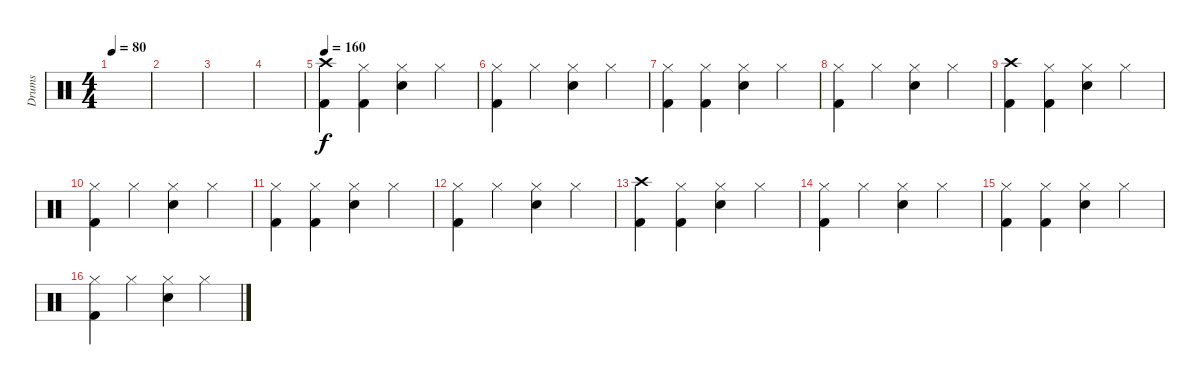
\track ("Drums" "Drums") {instrument percussion}
\staff {score}
\articulation defaults
\ts (4 4)
\tempo 80
\clef neutral
\ks c
|
|
|
|
\tempo 160
("Crash high (hit)" "Kick (hit) 2").4 ("Hi-Hat (closed)" "Kick (hit) 2").4 ("Hi-Hat (closed)" "Snare (hit) 2").4 "Hi-Hat (closed)".4 |
("Hi-Hat (closed)" "Kick (hit) 2").4 "Hi-Hat (closed)".4 ("Hi-Hat (closed)" "Snare (hit) 2").4 "Hi-Hat (closed)".4 |
("Hi-Hat (closed)" "Kick (hit) 2").4 ("Hi-Hat (closed)" "Kick (hit) 2").4 ("Hi-Hat (closed)" "Snare (hit) 2").4 "Hi-Hat (closed)".4 |
("Hi-Hat (closed)" "Kick (hit) 2").4 "Hi-Hat (closed)".4 ("Hi-Hat (closed)" "Snare (hit) 2").4 "Hi-Hat (closed)".4 |
("Crash high (hit)" "Kick (hit) 2").4 ("Hi-Hat (closed)" "Kick (hit) 2").4 ("Hi-Hat (closed)" "Snare (hit) 2").4 "Hi-Hat (closed)".4 |
("Hi-Hat (closed)" "Kick (hit) 2").4 "Hi-Hat (closed)".4 ("Hi-Hat (closed)" "Snare (hit) 2").4 "Hi-Hat (closed)".4 |
("Hi-Hat (closed)" "Kick (hit) 2").4 ("Hi-Hat (closed)" "Kick (hit) 2").4 ("Hi-Hat (closed)" "Snare (hit) 2").4 "Hi-Hat (closed)".4 |
("Hi-Hat (closed)" "Kick (hit) 2").4 "Hi-Hat (closed)".4 ("Hi-Hat (closed)" "Snare (hit) 2").4 "Hi-Hat (closed)".4 |
("Crash high (hit)" "Kick (hit) 2").4 ("Hi-Hat (closed)" "Kick (hit) 2").4 ("Hi-Hat (closed)" "Snare (hit) 2").4 "Hi-Hat (closed)".4 |
("Hi-Hat (closed)" "Kick (hit) 2").4 "Hi-Hat (closed)".4 ("Hi-Hat (closed)" "Snare (hit) 2").4 "Hi-Hat (closed)".4 |
("Hi-Hat (closed)" "Kick (hit) 2").4 ("Hi-Hat (closed)" "Kick (hit) 2").4 ("Hi-Hat (closed)" "Snare (hit) 2").4 "Hi-Hat (closed)".4 |
("Hi-Hat (closed)" "Kick (hit) 2").4 "Hi-Hat (closed)".4 ("Hi-Hat (closed)" "Snare (hit) 2").4 "Hi-Hat (closed)".4
